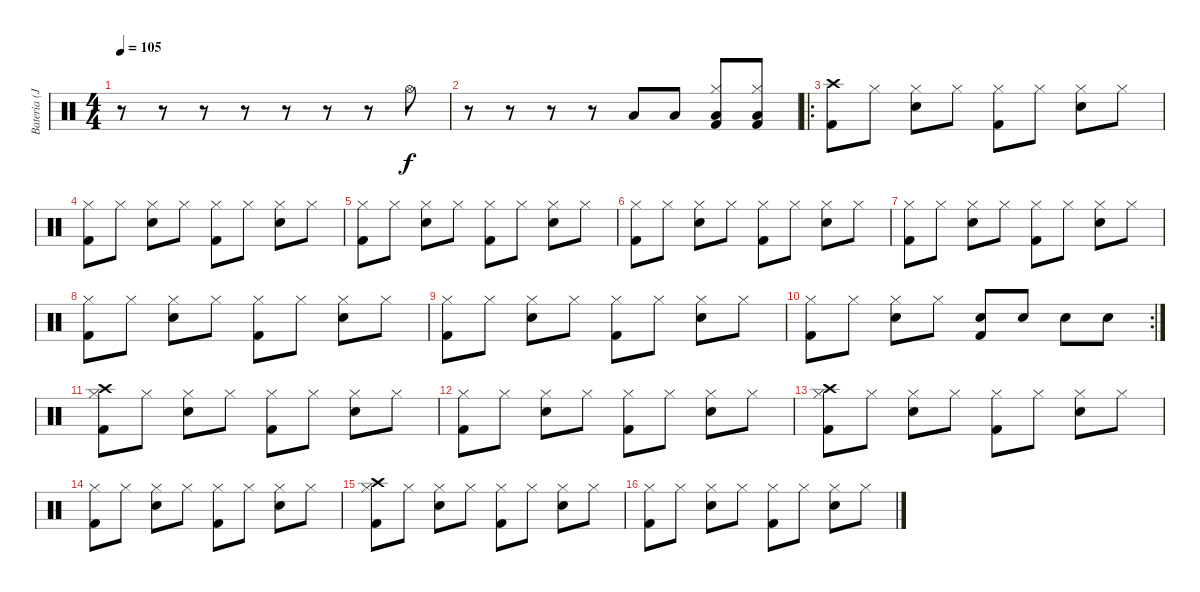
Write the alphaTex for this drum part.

\track ("Bateria (Javi Molina)" "Bateria (J") {instrument percussion}
\staff {score}
\articulation defaults
\ts (4 4)
\tempo 105
\clef neutral
\ks c
r.8{dy f} r.8 r.8 r.8 r.8 r.8 r.8 "Hi-Hat (open)".8 |
r.8 r.8 r.8 r.8 "Low Tom (hit)".8 "Low Tom (hit)".8 ("Hi-Hat (closed)" "Low Tom (hit)" "Kick (hit) 2").8 ("Hi-Hat (closed)" "Low Tom (hit)" "Kick (hit) 2").8 |
\ro
("Crash high (hit)" "Kick (hit) 2").8 "Hi-Hat (closed)".8 ("Hi-Hat (closed)" "Snare (hit) 2").8 "Hi-Hat (closed)".8 ("Hi-Hat (closed)" "Kick (hit) 2").8 "Hi-Hat (closed)".8 ("Hi-Hat (closed)" "Snare (hit) 2").8 "Hi-Hat (closed)".8 |
("Hi-Hat (closed)" "Kick (hit) 2").8 "Hi-Hat (closed)".8 ("Hi-Hat (closed)" "Snare (hit) 2").8 "Hi-Hat (closed)".8 ("Hi-Hat (closed)" "Kick (hit) 2").8 "Hi-Hat (closed)".8 ("Hi-Hat (closed)" "Snare (hit) 2").8 "Hi-Hat (closed)".8 |
("Hi-Hat (closed)" "Kick (hit) 2").8 "Hi-Hat (closed)".8 ("Hi-Hat (closed)" "Snare (hit) 2").8 "Hi-Hat (closed)".8 ("Hi-Hat (closed)" "Kick (hit) 2").8 "Hi-Hat (closed)".8 ("Hi-Hat (closed)" "Snare (hit) 2").8 "Hi-Hat (closed)".8 |
("Hi-Hat (closed)" "Kick (hit) 2").8 "Hi-Hat (closed)".8 ("Hi-Hat (closed)" "Snare (hit) 2").8 "Hi-Hat (closed)".8 ("Hi-Hat (closed)" "Kick (hit) 2").8 "Hi-Hat (closed)".8 ("Hi-Hat (closed)" "Snare (hit) 2").8 "Hi-Hat (closed)".8 |
("Hi-Hat (closed)" "Kick (hit) 2").8 "Hi-Hat (closed)".8 ("Hi-Hat (closed)" "Snare (hit) 2").8 "Hi-Hat (closed)".8 ("Hi-Hat (closed)" "Kick (hit) 2").8 "Hi-Hat (closed)".8 ("Hi-Hat (closed)" "Snare (hit) 2").8 "Hi-Hat (closed)".8 |
("Hi-Hat (closed)" "Kick (hit) 2").8 "Hi-Hat (closed)".8 ("Hi-Hat (closed)" "Snare (hit) 2").8 "Hi-Hat (closed)".8 ("Hi-Hat (closed)" "Kick (hit) 2").8 "Hi-Hat (closed)".8 ("Hi-Hat (closed)" "Snare (hit) 2").8 "Hi-Hat (closed)".8 |
("Hi-Hat (closed)" "Kick (hit) 2").8 "Hi-Hat (closed)".8 ("Hi-Hat (closed)" "Snare (hit) 2").8 "Hi-Hat (closed)".8 ("Hi-Hat (closed)" "Kick (hit) 2").8 "Hi-Hat (closed)".8 ("Hi-Hat (closed)" "Snare (hit) 2").8 "Hi-Hat (closed)".8 |
\rc 2
("Hi-Hat (closed)" "Kick (hit) 2").8 "Hi-Hat (closed)".8 ("Hi-Hat (closed)" "Snare (hit) 2").8 "Hi-Hat (closed)".8 ("Snare (hit) 2" "Kick (hit) 2").8 "Snare (hit) 2".8 "Snare (hit) 2".8 "Snare (hit) 2".8 |
("Hi-Hat (closed)" "Crash high (hit)" "Kick (hit) 2").8 "Hi-Hat (closed)".8 ("Hi-Hat (closed)" "Snare (hit) 2").8 "Hi-Hat (closed)".8 ("Hi-Hat (closed)" "Kick (hit) 2").8 "Hi-Hat (closed)".8 ("Hi-Hat (closed)" "Snare (hit) 2").8 "Hi-Hat (closed)".8 |
("Hi-Hat (closed)" "Kick (hit) 2").8 "Hi-Hat (closed)".8 ("Hi-Hat (closed)" "Snare (hit) 2").8 "Hi-Hat (closed)".8 ("Hi-Hat (closed)" "Kick (hit) 2").8 "Hi-Hat (closed)".8 ("Hi-Hat (closed)" "Snare (hit) 2").8 "Hi-Hat (closed)".8 |
("Hi-Hat (closed)" "Crash high (hit)" "Kick (hit) 2").8 "Hi-Hat (closed)".8 ("Hi-Hat (closed)" "Snare (hit) 2").8 "Hi-Hat (closed)".8 ("Hi-Hat (closed)" "Kick (hit) 2").8 "Hi-Hat (closed)".8 ("Hi-Hat (closed)" "Snare (hit) 2").8 "Hi-Hat (closed)".8 |
("Hi-Hat (closed)" "Kick (hit) 2").8 "Hi-Hat (closed)".8 ("Hi-Hat (closed)" "Snare (hit) 2").8 "Hi-Hat (closed)".8 ("Hi-Hat (closed)" "Kick (hit) 2").8 "Hi-Hat (closed)".8 ("Hi-Hat (closed)" "Snare (hit) 2").8 "Hi-Hat (closed)".8 |
("Hi-Hat (closed)" "Crash high (hit)" "Kick (hit) 2").8 "Hi-Hat (closed)".8 ("Hi-Hat (closed)" "Snare (hit) 2").8 "Hi-Hat (closed)".8 ("Hi-Hat (closed)" "Kick (hit) 2").8 "Hi-Hat (closed)".8 ("Hi-Hat (closed)" "Snare (hit) 2").8 "Hi-Hat (closed)".8 |
("Hi-Hat (closed)" "Kick (hit) 2").8 "Hi-Hat (closed)".8 ("Hi-Hat (closed)" "Snare (hit) 2").8 "Hi-Hat (closed)".8 ("Hi-Hat (closed)" "Kick (hit) 2").8 "Hi-Hat (closed)".8 ("Hi-Hat (closed)" "Snare (hit) 2").8 "Hi-Hat (closed)".8
